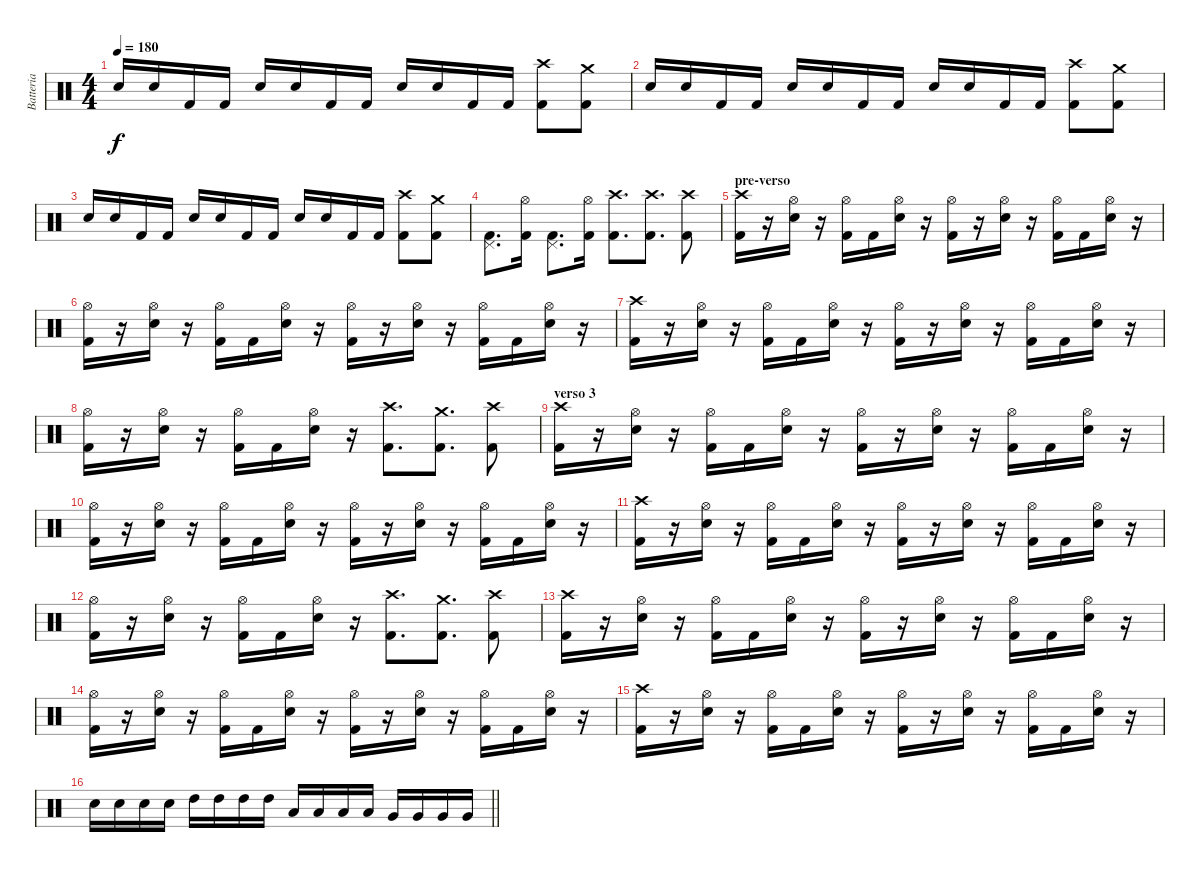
\track ("Batteria" "Batteria") {instrument percussion}
\staff {score}
\articulation defaults
\ts (4 4)
\tempo 180
\clef neutral
\ks c "Snare (hit) 2".16{dy f} "Snare (hit) 2".16 "Kick (hit) 2".16 "Kick (hit) 2".16 "Snare (hit) 2".16 "Snare (hit) 2".16 "Kick (hit) 2".16 "Kick (hit) 2".16 "Snare (hit) 2".16 "Snare (hit) 2".16 "Kick (hit) 2".16 "Kick (hit) 2".16
("Crash high (hit)" "Kick (hit) 2").8 ("Crash medium (hit)" "Kick (hit) 2").8 |
"Snare (hit) 2".16 "Snare (hit) 2".16 "Kick (hit) 2".16 "Kick (hit) 2".16 "Snare (hit) 2".16 "Snare (hit) 2".16 "Kick (hit) 2".16 "Kick (hit) 2".16 "Snare (hit) 2".16 "Snare (hit) 2".16 "Kick (hit) 2".16 "Kick (hit) 2".16 ("Crash high (hit)" "Kick (hit) 2").8 ("Crash medium (hit)" "Kick (hit) 2").8 |
"Snare (hit) 2".16 "Snare (hit) 2".16 "Kick (hit) 2".16 "Kick (hit) 2".16 "Snare (hit) 2".16 "Snare (hit) 2".16 "Kick (hit) 2".16 "Kick (hit) 2".16 "Snare (hit) 2".16 "Snare (hit) 2".16 "Kick (hit) 2".16 "Kick (hit) 2".16 ("Crash high (hit)" "Kick (hit) 2").8 ("Crash medium (hit)" "Kick (hit) 2").8 |
("Pedal Hi-Hat (hit)" "Kick (hit) 2").8{d} ("Hi-Hat (open)" "Kick (hit) 2").16 ("Pedal Hi-Hat (hit)" "Kick (hit) 2").8{d} ("Hi-Hat (open)" "Kick (hit) 2").16 ("Crash high (hit)" "Kick (hit) 2").8{d} ("Crash high (hit)" "Kick (hit) 2").8{d} ("Crash high (hit)" "Kick (hit) 2").8 |
\section ("" "pre-verso")
("Crash high (hit)" "Kick (hit) 2").16 r.16 ("Hi-Hat (open)" "Snare (hit) 2").16 r.16 ("Hi-Hat (open)" "Kick (hit) 2").16 "Kick (hit) 2".16 ("Hi-Hat (open)" "Snare (hit) 2").16 r.16 ("Hi-Hat (open)" "Kick (hit) 2").16 r.16 ("Hi-Hat (open)" "Snare (hit) 2").16 r.16 ("Hi-Hat (open)" "Kick (hit) 2").16 "Kick (hit) 2".16 ("Hi-Hat (open)" "Snare (hit) 2").16 r.16 |
("Hi-Hat (open)" "Kick (hit) 2").16 r.16 ("Hi-Hat (open)" "Snare (hit) 2").16 r.16 ("Hi-Hat (open)" "Kick (hit) 2").16 "Kick (hit) 2".16 ("Hi-Hat (open)" "Snare (hit) 2").16 r.16 ("Hi-Hat (open)" "Kick (hit) 2").16 r.16 ("Hi-Hat (open)" "Snare (hit) 2").16 r.16 ("Hi-Hat (open)" "Kick (hit) 2").16 "Kick (hit) 2".16 ("Hi-Hat (open)" "Snare (hit) 2").16 r.16 |
("Crash high (hit)" "Kick (hit) 2").16 r.16 ("Hi-Hat (open)" "Snare (hit) 2").16 r.16 ("Hi-Hat (open)" "Kick (hit) 2").16 "Kick (hit) 2".16 ("Hi-Hat (open)" "Snare (hit) 2").16 r.16 ("Hi-Hat (open)" "Kick (hit) 2").16 r.16 ("Hi-Hat (open)" "Snare (hit) 2").16 r.16 ("Hi-Hat (open)" "Kick (hit) 2").16 "Kick (hit) 2".16 ("Hi-Hat (open)" "Snare (hit) 2").16 r.16 |
("Hi-Hat (open)" "Kick (hit) 2").16 r.16 ("Hi-Hat (open)" "Snare (hit) 2").16 r.16 ("Hi-Hat (open)" "Kick (hit) 2").16 "Kick (hit) 2".16 ("Hi-Hat (open)" "Snare (hit) 2").16 r.16 ("Crash high (hit)" "Kick (hit) 2").8{d} ("Crash medium (hit)" "Kick (hit) 2").8{d} ("Crash high (hit)" "Kick (hit) 2").8 |
\section ("" "verso 3")
("Crash high (hit)" "Kick (hit) 2").16 r.16 ("Hi-Hat (open)" "Snare (hit) 2").16 r.16 ("Hi-Hat (open)" "Kick (hit) 2").16 "Kick (hit) 2".16 ("Hi-Hat (open)" "Snare (hit) 2").16 r.16 ("Hi-Hat (open)" "Kick (hit) 2").16 r.16 ("Hi-Hat (open)" "Snare (hit) 2").16 r.16 ("Hi-Hat (open)" "Kick (hit) 2").16 "Kick (hit) 2".16 ("Hi-Hat (open)" "Snare (hit) 2").16 r.16 |
("Hi-Hat (open)" "Kick (hit) 2").16 r.16 ("Hi-Hat (open)" "Snare (hit) 2").16 r.16 ("Hi-Hat (open)" "Kick (hit) 2").16 "Kick (hit) 2".16 ("Hi-Hat (open)" "Snare (hit) 2").16 r.16 ("Hi-Hat (open)" "Kick (hit) 2").16 r.16 ("Hi-Hat (open)" "Snare (hit) 2").16 r.16 ("Hi-Hat (open)" "Kick (hit) 2").16 "Kick (hit) 2".16 ("Hi-Hat (open)" "Snare (hit) 2").16 r.16 |
("Crash high (hit)" "Kick (hit) 2").16 r.16 ("Hi-Hat (open)" "Snare (hit) 2").16 r.16 ("Hi-Hat (open)" "Kick (hit) 2").16 "Kick (hit) 2".16 ("Hi-Hat (open)" "Snare (hit) 2").16 r.16 ("Hi-Hat (open)" "Kick (hit) 2").16 r.16 ("Hi-Hat (open)" "Snare (hit) 2").16 r.16 ("Hi-Hat (open)" "Kick (hit) 2").16 "Kick (hit) 2".16 ("Hi-Hat (open)" "Snare (hit) 2").16 r.16 |
("Hi-Hat (open)" "Kick (hit) 2").16 r.16 ("Hi-Hat (open)" "Snare (hit) 2").16 r.16 ("Hi-Hat (open)" "Kick (hit) 2").16 "Kick (hit) 2".16 ("Hi-Hat (open)" "Snare (hit) 2").16 r.16 ("Crash high (hit)" "Kick (hit) 2").8{d} ("Crash medium (hit)" "Kick (hit) 2").8{d} ("Crash high (hit)" "Kick (hit) 2").8 |
("Crash high (hit)" "Kick (hit) 2").16 r.16 ("Hi-Hat (open)" "Snare (hit) 2").16 r.16 ("Hi-Hat (open)" "Kick (hit) 2").16 "Kick (hit) 2".16 ("Hi-Hat (open)" "Snare (hit) 2").16 r.16 ("Hi-Hat (open)" "Kick (hit) 2").16 r.16 ("Hi-Hat (open)" "Snare (hit) 2").16 r.16 ("Hi-Hat (open)" "Kick (hit) 2").16 "Kick (hit) 2".16 ("Hi-Hat (open)" "Snare (hit) 2").16 r.16 |
("Hi-Hat (open)" "Kick (hit) 2").16 r.16 ("Hi-Hat (open)" "Snare (hit) 2").16 r.16 ("Hi-Hat (open)" "Kick (hit) 2").16 "Kick (hit) 2".16 ("Hi-Hat (open)" "Snare (hit) 2").16 r.16 ("Hi-Hat (open)" "Kick (hit) 2").16 r.16 ("Hi-Hat (open)" "Snare (hit) 2").16 r.16 ("Hi-Hat (open)" "Kick (hit) 2").16 "Kick (hit) 2".16 ("Hi-Hat (open)" "Snare (hit) 2").16 r.16 |
("Crash high (hit)" "Kick (hit) 2").16 r.16 ("Hi-Hat (open)" "Snare (hit) 2").16 r.16 ("Hi-Hat (open)" "Kick (hit) 2").16 "Kick (hit) 2".16 ("Hi-Hat (open)" "Snare (hit) 2").16 r.16 ("Hi-Hat (open)" "Kick (hit) 2").16 r.16 ("Hi-Hat (open)" "Snare (hit) 2").16 r.16 ("Hi-Hat (open)" "Kick (hit) 2").16 "Kick (hit) 2".16 ("Hi-Hat (open)" "Snare (hit) 2").16 r.16 |
\barLineRight lightlight "Snare (hit) 2".16 "Snare (hit) 2".16 "Snare (hit) 2".16 "Snare (hit) 2".16 "High Tom (hit)".16 "High Tom (hit)".16 "High Tom (hit)".16 "High Tom (hit)".16 "Low Tom (hit)".16 "Low Tom (hit)".16 "Low Tom (hit)".16 "Low Tom (hit)".16 "Very Low Tom (hit)".16 "Very Low Tom (hit)".16 "Very Low Tom (hit)".16 "Very Low Tom (hit)".16
